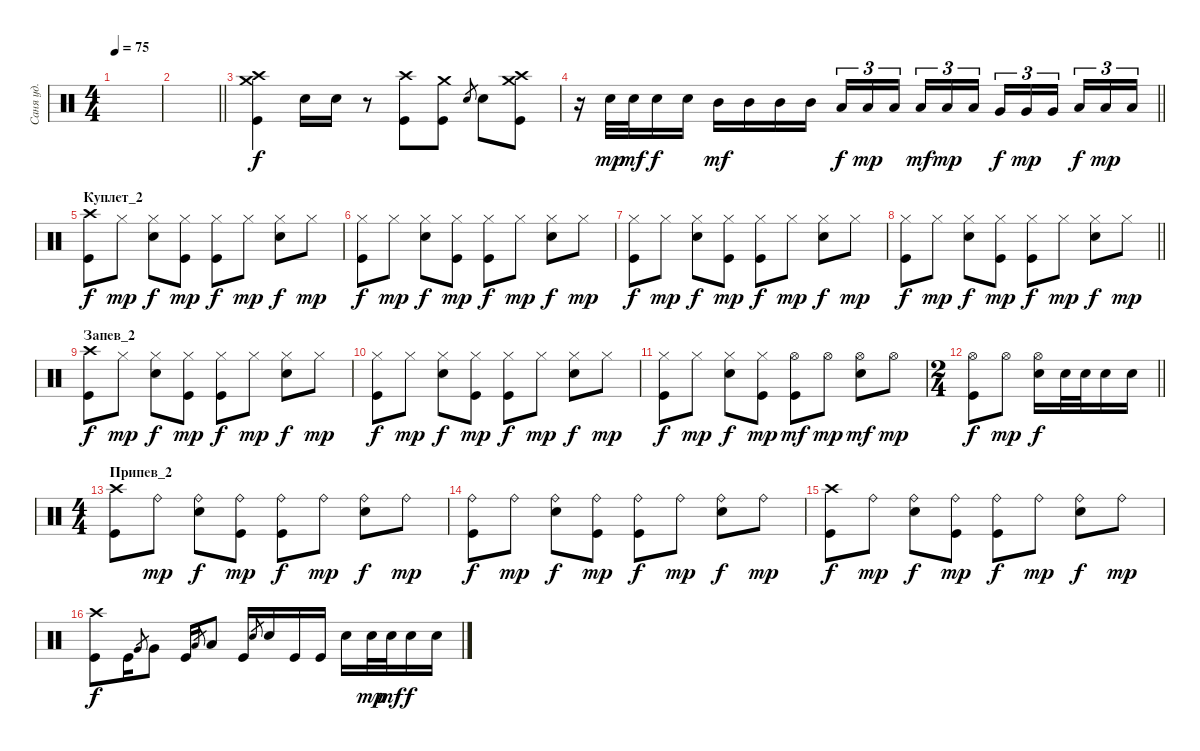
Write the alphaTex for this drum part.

\track ("Саня уд." "Саня уд.") {instrument percussion}
\staff {score}
\articulation defaults
\ts (4 4)
\tempo 75
\clef neutral
\ks c
|
\barLineRight lightlight
|
\section ("" "")
("Crash high (hit)" "Crash medium (hit)" "Kick (hit)").4 "Snare (hit) 2".16 "Snare (hit) 2".16 r.8 ("Crash high (hit)" "Kick (hit)").8 ("Crash medium (hit)" "Kick (hit)").8 "Snare (hit) 2".8{gr} "Snare (hit) 2".8 ("Crash medium (hit)" "Crash high (hit)" "Kick (hit)").8 |
\barLineRight lightlight
r.16 "Snare (hit) 2".32{dy mp} "Snare (hit) 2".32{dy mf} "Snare (hit) 2".16{dy f} "Snare (hit) 2".16 "Mid Tom (hit)".16{dy mf} "Mid Tom (hit)".16 "Mid Tom (hit)".16 "Mid Tom (hit)".16 "Low Tom (hit)".16{tu (3 2) dy f} "Low Tom (hit)".16{tu (3 2) dy mp} "Low Tom (hit)".16{tu (3 2) beam splitsecondary} "Low Tom (hit)".16{tu (3 2) dy mf} "Low Tom (hit)".16{tu (3 2) dy mp} "Low Tom (hit)".16{tu (3 2)} "Very Low Tom (hit)".16{tu (3 2) dy f} "Very Low Tom (hit)".16{tu (3 2) dy mp} "Very Low Tom (hit)".16{tu (3 2) beam splitsecondary} "Low Floor Tom (hit)".16{tu (3 2) dy f} "Low Floor Tom (hit)".16{tu (3 2) dy mp} "Low Floor Tom (hit)".16{tu (3 2)} |
\section ("" "Куплет_2")
("Crash high (hit)" "Kick (hit)").8{dy f} "Hi-Hat (closed)".8{dy mp} ("Hi-Hat (closed)" "Snare (hit) 2").8{dy f} ("Hi-Hat (closed)" "Kick (hit)").8{dy mp} ("Hi-Hat (closed)" "Kick (hit)").8{dy f} "Hi-Hat (closed)".8{dy mp} ("Hi-Hat (closed)" "Snare (hit) 2").8{dy f} "Hi-Hat (closed)".8{dy mp} |
("Hi-Hat (closed)" "Kick (hit)").8{dy f} "Hi-Hat (closed)".8{dy mp} ("Hi-Hat (closed)" "Snare (hit) 2").8{dy f} ("Hi-Hat (closed)" "Kick (hit)").8{dy mp} ("Hi-Hat (closed)" "Kick (hit)").8{dy f} "Hi-Hat (closed)".8{dy mp} ("Hi-Hat (closed)" "Snare (hit) 2").8{dy f} "Hi-Hat (closed)".8{dy mp} |
("Hi-Hat (closed)" "Kick (hit)").8{dy f} "Hi-Hat (closed)".8{dy mp} ("Hi-Hat (closed)" "Snare (hit) 2").8{dy f} ("Hi-Hat (closed)" "Kick (hit)").8{dy mp} ("Hi-Hat (closed)" "Kick (hit)").8{dy f} "Hi-Hat (closed)".8{dy mp} ("Hi-Hat (closed)" "Snare (hit) 2").8{dy f} "Hi-Hat (closed)".8{dy mp} |
\barLineRight lightlight
("Hi-Hat (closed)" "Kick (hit)").8{dy f} "Hi-Hat (closed)".8{dy mp} ("Hi-Hat (closed)" "Snare (hit) 2").8{dy f} ("Hi-Hat (closed)" "Kick (hit)").8{dy mp} ("Hi-Hat (closed)" "Kick (hit)").8{dy f} "Hi-Hat (closed)".8{dy mp} ("Hi-Hat (closed)" "Snare (hit) 2").8{dy f} "Hi-Hat (closed)".8{dy mp} |
\section ("" "Запев_2")
("Crash high (hit)" "Kick (hit)").8{dy f} "Hi-Hat (closed)".8{dy mp} ("Hi-Hat (closed)" "Snare (hit) 2").8{dy f} ("Hi-Hat (closed)" "Kick (hit)").8{dy mp} ("Hi-Hat (closed)" "Kick (hit)").8{dy f} "Hi-Hat (closed)".8{dy mp} ("Hi-Hat (closed)" "Snare (hit) 2").8{dy f} "Hi-Hat (closed)".8{dy mp} |
("Hi-Hat (closed)" "Kick (hit)").8{dy f} "Hi-Hat (closed)".8{dy mp} ("Hi-Hat (closed)" "Snare (hit) 2").8{dy f} ("Hi-Hat (closed)" "Kick (hit)").8{dy mp} ("Hi-Hat (closed)" "Kick (hit)").8{dy f} "Hi-Hat (closed)".8{dy mp} ("Hi-Hat (closed)" "Snare (hit) 2").8{dy f} "Hi-Hat (closed)".8{dy mp} |
("Hi-Hat (closed)" "Kick (hit)").8{dy f} "Hi-Hat (closed)".8{dy mp} ("Hi-Hat (closed)" "Snare (hit) 2").8{dy f} ("Hi-Hat (closed)" "Kick (hit)").8{dy mp} ("Hi-Hat (open)" "Kick (hit)").8{dy mf} "Hi-Hat (open)".8{dy mp} ("Hi-Hat (open)" "Snare (hit) 2").8{dy mf} "Hi-Hat (open)".8{dy mp} |
\ts (2 4)
\barLineRight lightlight
("Hi-Hat (open)" "Kick (hit)").8{dy f} "Hi-Hat (open)".8{dy mp} ("Hi-Hat (open)" "Snare (hit) 2").16{dy f} "Snare (hit) 2".32 "Snare (hit) 2".32 "Snare (hit) 2".16 "Snare (hit) 2".16 |
\ts (4 4)
\section ("" "Припев_2")
("Crash high (hit)" "Kick (hit)").8 "Ride (bell)".8{dy mp} ("Ride (bell)" "Snare (hit) 2").8{dy f} ("Ride (bell)" "Kick (hit)").8{dy mp} ("Ride (bell)" "Kick (hit)").8{dy f} "Ride (bell)".8{dy mp} ("Ride (bell)" "Snare (hit) 2").8{dy f} "Ride (bell)".8{dy mp} |
("Ride (bell)" "Kick (hit)").8{dy f} "Ride (bell)".8{dy mp} ("Ride (bell)" "Snare (hit) 2").8{dy f} ("Ride (bell)" "Kick (hit)").8{dy mp} ("Ride (bell)" "Kick (hit)").8{dy f} "Ride (bell)".8{dy mp} ("Ride (bell)" "Snare (hit) 2").8{dy f} "Ride (bell)".8{dy mp} |
("Crash high (hit)" "Kick (hit)").8{dy f} "Ride (bell)".8{dy mp} ("Ride (bell)" "Snare (hit) 2").8{dy f} ("Ride (bell)" "Kick (hit)").8{dy mp} ("Ride (bell)" "Kick (hit)").8{dy f} "Ride (bell)".8{dy mp} ("Ride (bell)" "Snare (hit) 2").8{dy f} "Ride (bell)".8{dy mp} |
("Crash high (hit)" "Kick (hit)").8{dy f} "Kick (hit)".16 "Very Low Tom (hit)".8{gr} "Very Low Tom (hit)".8 "Kick (hit)".16 "Low Floor Tom (hit)".8{gr} "Low Floor Tom (hit)".8 "Kick (hit)".16 "Snare (hit) 2".8{gr} "Snare (hit) 2".16 "Kick (hit)".16 "Kick (hit)".16 "Snare (hit) 2".16 "Snare (hit) 2".32{dy mp} "Snare (hit) 2".32{dy mf} "Snare (hit) 2".16{dy f} "Snare (hit) 2".16
